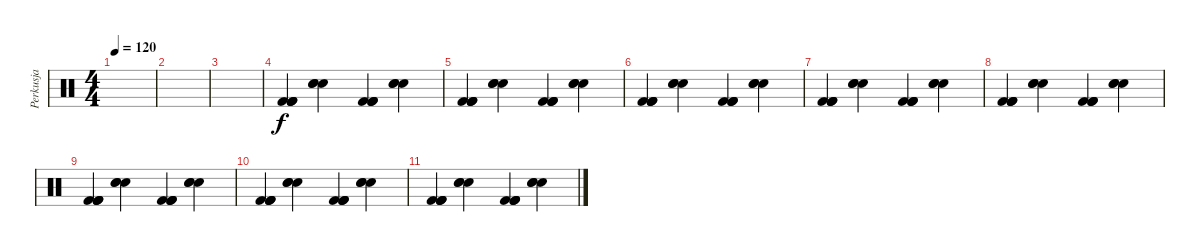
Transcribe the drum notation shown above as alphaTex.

\track ("Perkusja" "Perkusja") {instrument percussion}
\staff {score}
\articulation defaults
\ts (4 4)
\tempo 120
\clef neutral
\ks c
|
|
|
("Kick (hit) 2" "Kick (hit) 2" "Kick (hit) 2" "Kick (hit) 2").4 ("Snare (hit) 2" "Snare (hit) 2" "Snare (hit) 2").4 ("Kick (hit) 2" "Kick (hit) 2" "Kick (hit) 2" "Kick (hit) 2").4 ("Snare (hit) 2" "Snare (hit) 2" "Snare (hit) 2").4 |
("Kick (hit) 2" "Kick (hit) 2" "Kick (hit) 2" "Kick (hit) 2").4 ("Snare (hit) 2" "Snare (hit) 2" "Snare (hit) 2").4 ("Kick (hit) 2" "Kick (hit) 2" "Kick (hit) 2" "Kick (hit) 2").4 ("Snare (hit) 2" "Snare (hit) 2" "Snare (hit) 2").4 |
("Kick (hit) 2" "Kick (hit) 2" "Kick (hit) 2" "Kick (hit) 2").4 ("Snare (hit) 2" "Snare (hit) 2" "Snare (hit) 2").4 ("Kick (hit) 2" "Kick (hit) 2" "Kick (hit) 2" "Kick (hit) 2").4 ("Snare (hit) 2" "Snare (hit) 2" "Snare (hit) 2").4 |
("Kick (hit) 2" "Kick (hit) 2" "Kick (hit) 2" "Kick (hit) 2").4 ("Snare (hit) 2" "Snare (hit) 2" "Snare (hit) 2").4 ("Kick (hit) 2" "Kick (hit) 2" "Kick (hit) 2" "Kick (hit) 2").4 ("Snare (hit) 2" "Snare (hit) 2" "Snare (hit) 2").4 |
("Kick (hit) 2" "Kick (hit) 2" "Kick (hit) 2" "Kick (hit) 2").4 ("Snare (hit) 2" "Snare (hit) 2" "Snare (hit) 2").4 ("Kick (hit) 2" "Kick (hit) 2" "Kick (hit) 2" "Kick (hit) 2").4 ("Snare (hit) 2" "Snare (hit) 2" "Snare (hit) 2").4 |
("Kick (hit) 2" "Kick (hit) 2" "Kick (hit) 2" "Kick (hit) 2").4 ("Snare (hit) 2" "Snare (hit) 2" "Snare (hit) 2").4 ("Kick (hit) 2" "Kick (hit) 2" "Kick (hit) 2" "Kick (hit) 2").4 ("Snare (hit) 2" "Snare (hit) 2" "Snare (hit) 2").4 |
("Kick (hit) 2" "Kick (hit) 2" "Kick (hit) 2" "Kick (hit) 2").4 ("Snare (hit) 2" "Snare (hit) 2" "Snare (hit) 2").4 ("Kick (hit) 2" "Kick (hit) 2" "Kick (hit) 2" "Kick (hit) 2").4 ("Snare (hit) 2" "Snare (hit) 2" "Snare (hit) 2").4 |
("Kick (hit) 2" "Kick (hit) 2" "Kick (hit) 2" "Kick (hit) 2").4 ("Snare (hit) 2" "Snare (hit) 2" "Snare (hit) 2").4 ("Kick (hit) 2" "Kick (hit) 2" "Kick (hit) 2" "Kick (hit) 2").4 ("Snare (hit) 2" "Snare (hit) 2" "Snare (hit) 2").4
